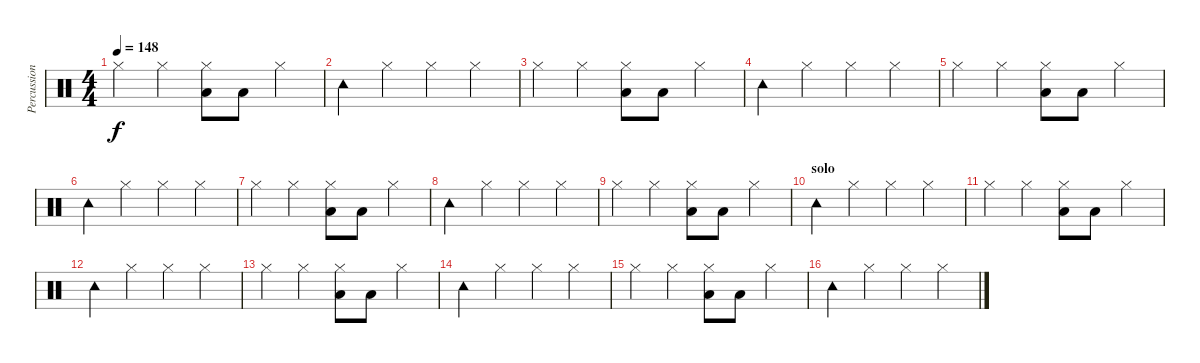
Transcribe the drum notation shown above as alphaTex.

\track ("Percussions" "Percussion") {instrument percussion}
\staff {score}
\articulation defaults
\ts (4 4)
\tempo 148
\clef neutral
\ks c "Hi-Hat (closed)".4{dy f} "Hi-Hat (closed)".4
("Hi-Hat (closed)" "Low Tom (hit)").8 "Low Tom (hit)".8 "Hi-Hat (closed)".4 |
"Tambourine (hit)".4 "Hi-Hat (closed)".4 "Hi-Hat (closed)".4 "Hi-Hat (closed)".4 |
"Hi-Hat (closed)".4 "Hi-Hat (closed)".4 ("Hi-Hat (closed)" "Low Tom (hit)").8 "Low Tom (hit)".8 "Hi-Hat (closed)".4 |
"Tambourine (hit)".4 "Hi-Hat (closed)".4 "Hi-Hat (closed)".4 "Hi-Hat (closed)".4 |
"Hi-Hat (closed)".4 "Hi-Hat (closed)".4 ("Hi-Hat (closed)" "Low Tom (hit)").8 "Low Tom (hit)".8 "Hi-Hat (closed)".4 |
"Tambourine (hit)".4 "Hi-Hat (closed)".4 "Hi-Hat (closed)".4 "Hi-Hat (closed)".4 |
"Hi-Hat (closed)".4 "Hi-Hat (closed)".4 ("Hi-Hat (closed)" "Low Tom (hit)").8 "Low Tom (hit)".8 "Hi-Hat (closed)".4 |
"Tambourine (hit)".4 "Hi-Hat (closed)".4 "Hi-Hat (closed)".4 "Hi-Hat (closed)".4 |
"Hi-Hat (closed)".4 "Hi-Hat (closed)".4 ("Hi-Hat (closed)" "Low Tom (hit)").8 "Low Tom (hit)".8 "Hi-Hat (closed)".4 |
\section ("" "solo")
"Tambourine (hit)".4 "Hi-Hat (closed)".4 "Hi-Hat (closed)".4 "Hi-Hat (closed)".4 |
"Hi-Hat (closed)".4 "Hi-Hat (closed)".4 ("Hi-Hat (closed)" "Low Tom (hit)").8 "Low Tom (hit)".8 "Hi-Hat (closed)".4 |
"Tambourine (hit)".4 "Hi-Hat (closed)".4 "Hi-Hat (closed)".4 "Hi-Hat (closed)".4 |
"Hi-Hat (closed)".4 "Hi-Hat (closed)".4 ("Hi-Hat (closed)" "Low Tom (hit)").8 "Low Tom (hit)".8 "Hi-Hat (closed)".4 |
"Tambourine (hit)".4 "Hi-Hat (closed)".4 "Hi-Hat (closed)".4 "Hi-Hat (closed)".4 |
"Hi-Hat (closed)".4 "Hi-Hat (closed)".4 ("Hi-Hat (closed)" "Low Tom (hit)").8 "Low Tom (hit)".8 "Hi-Hat (closed)".4 |
"Tambourine (hit)".4 "Hi-Hat (closed)".4 "Hi-Hat (closed)".4 "Hi-Hat (closed)".4
